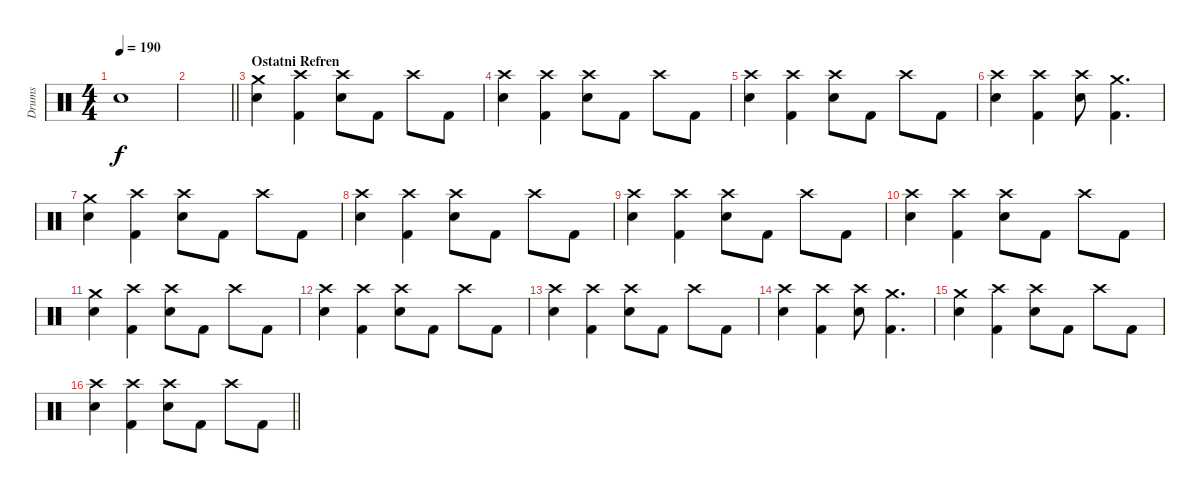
\track ("Drums" "Drums") {instrument percussion}
\staff {score}
\articulation defaults
\ts (4 4)
\tempo 190
\clef neutral
\ks c "Snare (hit) 2".1{dy f}
|
\barLineRight lightlight
|
\section ("" "Ostatni Refren")
("Crash medium (hit)" "Snare (hit) 2").4 ("Crash high (hit)" "Kick (hit) 2").4 ("Crash high (hit)" "Snare (hit) 2").8 "Kick (hit) 2".8 "Crash high (hit)".8 "Kick (hit) 2".8 |
("Crash high (hit)" "Snare (hit) 2").4 ("Crash high (hit)" "Kick (hit) 2").4 ("Crash high (hit)" "Snare (hit) 2").8 "Kick (hit) 2".8 "Crash high (hit)".8 "Kick (hit) 2".8 |
("Crash high (hit)" "Snare (hit) 2").4 ("Crash high (hit)" "Kick (hit) 2").4 ("Crash high (hit)" "Snare (hit) 2").8 "Kick (hit) 2".8 "Crash high (hit)".8 "Kick (hit) 2".8 |
("Crash high (hit)" "Snare (hit) 2").4 ("Crash high (hit)" "Kick (hit) 2").4 ("Crash high (hit)" "Snare (hit) 2").8 ("Crash medium (hit)" "Kick (hit) 2").4{d} |
("Crash medium (hit)" "Snare (hit) 2").4 ("Crash high (hit)" "Kick (hit) 2").4 ("Crash high (hit)" "Snare (hit) 2").8 "Kick (hit) 2".8 "Crash high (hit)".8 "Kick (hit) 2".8 |
("Crash high (hit)" "Snare (hit) 2").4 ("Crash high (hit)" "Kick (hit) 2").4 ("Crash high (hit)" "Snare (hit) 2").8 "Kick (hit) 2".8 "Crash high (hit)".8 "Kick (hit) 2".8 |
("Crash high (hit)" "Snare (hit) 2").4 ("Crash high (hit)" "Kick (hit) 2").4 ("Crash high (hit)" "Snare (hit) 2").8 "Kick (hit) 2".8 "Crash high (hit)".8 "Kick (hit) 2".8 |
("Crash high (hit)" "Snare (hit) 2").4 ("Crash high (hit)" "Kick (hit) 2").4 ("Crash high (hit)" "Snare (hit) 2").8 "Kick (hit) 2".8 "Crash high (hit)".8 "Kick (hit) 2".8 |
("Crash medium (hit)" "Snare (hit) 2").4 ("Crash high (hit)" "Kick (hit) 2").4 ("Crash high (hit)" "Snare (hit) 2").8 "Kick (hit) 2".8 "Crash high (hit)".8 "Kick (hit) 2".8 |
("Crash high (hit)" "Snare (hit) 2").4 ("Crash high (hit)" "Kick (hit) 2").4 ("Crash high (hit)" "Snare (hit) 2").8 "Kick (hit) 2".8 "Crash high (hit)".8 "Kick (hit) 2".8 |
("Crash high (hit)" "Snare (hit) 2").4 ("Crash high (hit)" "Kick (hit) 2").4 ("Crash high (hit)" "Snare (hit) 2").8 "Kick (hit) 2".8 "Crash high (hit)".8 "Kick (hit) 2".8 |
("Crash high (hit)" "Snare (hit) 2").4 ("Crash high (hit)" "Kick (hit) 2").4 ("Crash high (hit)" "Snare (hit) 2").8 ("Crash medium (hit)" "Kick (hit) 2").4{d} |
("Crash medium (hit)" "Snare (hit) 2").4 ("Crash high (hit)" "Kick (hit) 2").4 ("Crash high (hit)" "Snare (hit) 2").8 "Kick (hit) 2".8 "Crash high (hit)".8 "Kick (hit) 2".8 |
\barLineRight lightlight
("Crash high (hit)" "Snare (hit) 2").4 ("Crash high (hit)" "Kick (hit) 2").4 ("Crash high (hit)" "Snare (hit) 2").8 "Kick (hit) 2".8 "Crash high (hit)".8 "Kick (hit) 2".8
